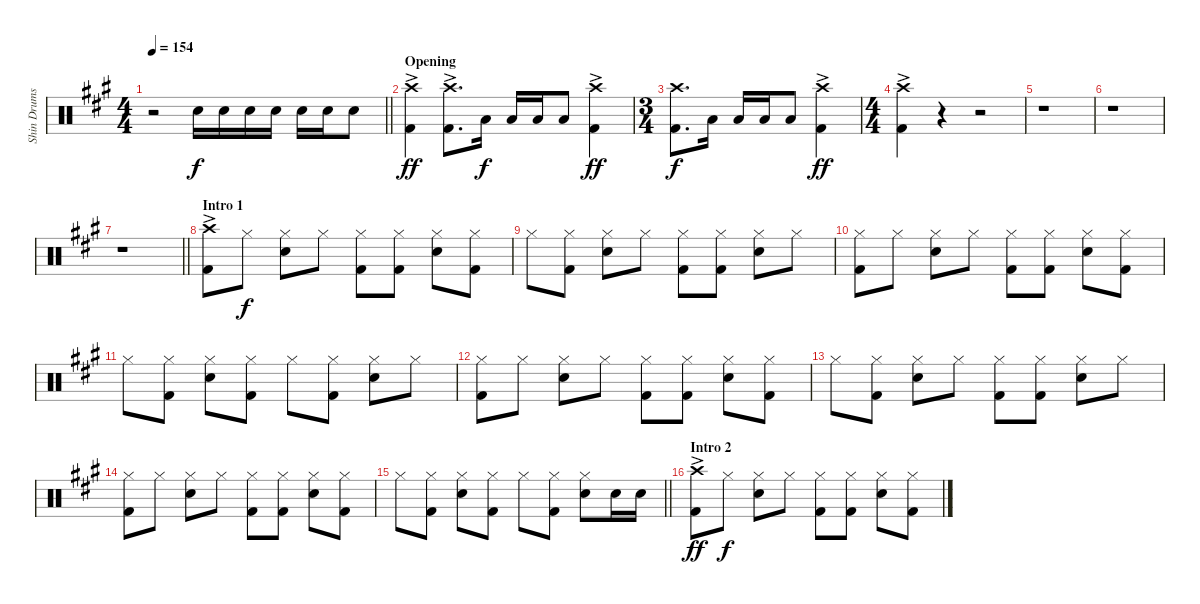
\track ("Shin Drums" "Shin Drums") {instrument percussion}
\staff {score}
\articulation defaults
\ts (4 4)
\tempo 154
\clef neutral
\barLineRight lightlight
\ks a
r.2{dy f} "Snare (hit) 2".16 "Snare (hit) 2".16 "Snare (hit) 2".16 "Snare (hit) 2".16 "Snare (hit) 2".16 "Snare (hit) 2".16 "Snare (hit) 2".8 |
\section ("" "Opening")
("Crash high (hit)"{ac} "Kick (hit) 2").4{dy ff} ("Crash high (hit)"{ac} "Kick (hit) 2").8{d} "Low Tom (hit)".16{dy f} "Low Tom (hit)".16 "Low Tom (hit)".16 "Low Tom (hit)".8 ("Crash high (hit)"{ac} "Kick (hit) 2").4{dy ff} |
\ts (3 4)
("Crash high (hit)" "Kick (hit) 2").8{d dy f} "Low Floor Tom (hit)".16 "Low Floor Tom (hit)".16 "Low Floor Tom (hit)".16 "Low Floor Tom (hit)".8 ("Crash high (hit)"{ac} "Kick (hit) 2").4{dy ff} |
\ts (4 4)
("Crash high (hit)"{ac} "Kick (hit) 2").4 r.4 r.2 |
r.1 |
r.1 |
\barLineRight lightlight
r.1 |
\section ("" "Intro 1")
("Crash high (hit)"{ac} "Kick (hit) 2").8 "Hi-Hat (closed)".8{dy f} ("Hi-Hat (closed)" "Snare (hit) 2").8 "Hi-Hat (closed)".8 ("Hi-Hat (closed)" "Kick (hit) 2").8 ("Hi-Hat (closed)" "Kick (hit) 2").8 ("Hi-Hat (closed)" "Snare (hit) 2").8 ("Hi-Hat (closed)" "Kick (hit) 2").8 |
"Hi-Hat (closed)".8 ("Hi-Hat (closed)" "Kick (hit) 2").8 ("Hi-Hat (closed)" "Snare (hit) 2").8 "Hi-Hat (closed)".8 ("Hi-Hat (closed)" "Kick (hit) 2").8 ("Hi-Hat (closed)" "Kick (hit) 2").8 ("Hi-Hat (closed)" "Snare (hit) 2").8 "Hi-Hat (closed)".8 |
("Hi-Hat (closed)" "Kick (hit) 2").8 "Hi-Hat (closed)".8 ("Hi-Hat (closed)" "Snare (hit) 2").8 "Hi-Hat (closed)".8 ("Hi-Hat (closed)" "Kick (hit) 2").8 ("Hi-Hat (closed)" "Kick (hit) 2").8 ("Hi-Hat (closed)" "Snare (hit) 2").8 ("Hi-Hat (closed)" "Kick (hit) 2").8 |
"Hi-Hat (closed)".8 ("Hi-Hat (closed)" "Kick (hit) 2").8 ("Hi-Hat (closed)" "Snare (hit) 2").8 ("Hi-Hat (closed)" "Kick (hit) 2").8 "Hi-Hat (closed)".8 ("Hi-Hat (closed)" "Kick (hit) 2").8 ("Hi-Hat (closed)" "Snare (hit) 2").8 "Hi-Hat (closed)".8 |
("Hi-Hat (closed)" "Kick (hit) 2").8 "Hi-Hat (closed)".8 ("Hi-Hat (closed)" "Snare (hit) 2").8 "Hi-Hat (closed)".8 ("Hi-Hat (closed)" "Kick (hit) 2").8 ("Hi-Hat (closed)" "Kick (hit) 2").8 ("Hi-Hat (closed)" "Snare (hit) 2").8 ("Hi-Hat (closed)" "Kick (hit) 2").8 |
"Hi-Hat (closed)".8 ("Hi-Hat (closed)" "Kick (hit) 2").8 ("Hi-Hat (closed)" "Snare (hit) 2").8 "Hi-Hat (closed)".8 ("Hi-Hat (closed)" "Kick (hit) 2").8 ("Hi-Hat (closed)" "Kick (hit) 2").8 ("Hi-Hat (closed)" "Snare (hit) 2").8 "Hi-Hat (closed)".8 |
("Hi-Hat (closed)" "Kick (hit) 2").8 "Hi-Hat (closed)".8 ("Hi-Hat (closed)" "Snare (hit) 2").8 "Hi-Hat (closed)".8 ("Hi-Hat (closed)" "Kick (hit) 2").8 ("Hi-Hat (closed)" "Kick (hit) 2").8 ("Hi-Hat (closed)" "Snare (hit) 2").8 ("Hi-Hat (closed)" "Kick (hit) 2").8 |
\barLineRight lightlight "Hi-Hat (closed)".8
("Hi-Hat (closed)" "Kick (hit) 2").8 ("Hi-Hat (closed)" "Snare (hit) 2").8 ("Hi-Hat (closed)" "Kick (hit) 2").8 "Hi-Hat (closed)".8 ("Hi-Hat (closed)" "Kick (hit) 2").8 ("Hi-Hat (closed)" "Snare (hit) 2").8 "Snare (hit) 2".16 "Snare (hit) 2".16 |
\section ("" "Intro 2")
("Crash high (hit)"{ac} "Kick (hit) 2").8{dy ff} "Hi-Hat (closed)".8{dy f} ("Hi-Hat (closed)" "Snare (hit) 2").8 "Hi-Hat (closed)".8 ("Hi-Hat (closed)" "Kick (hit) 2").8 ("Hi-Hat (closed)" "Kick (hit) 2").8 ("Hi-Hat (closed)" "Snare (hit) 2").8 ("Hi-Hat (closed)" "Kick (hit) 2").8
